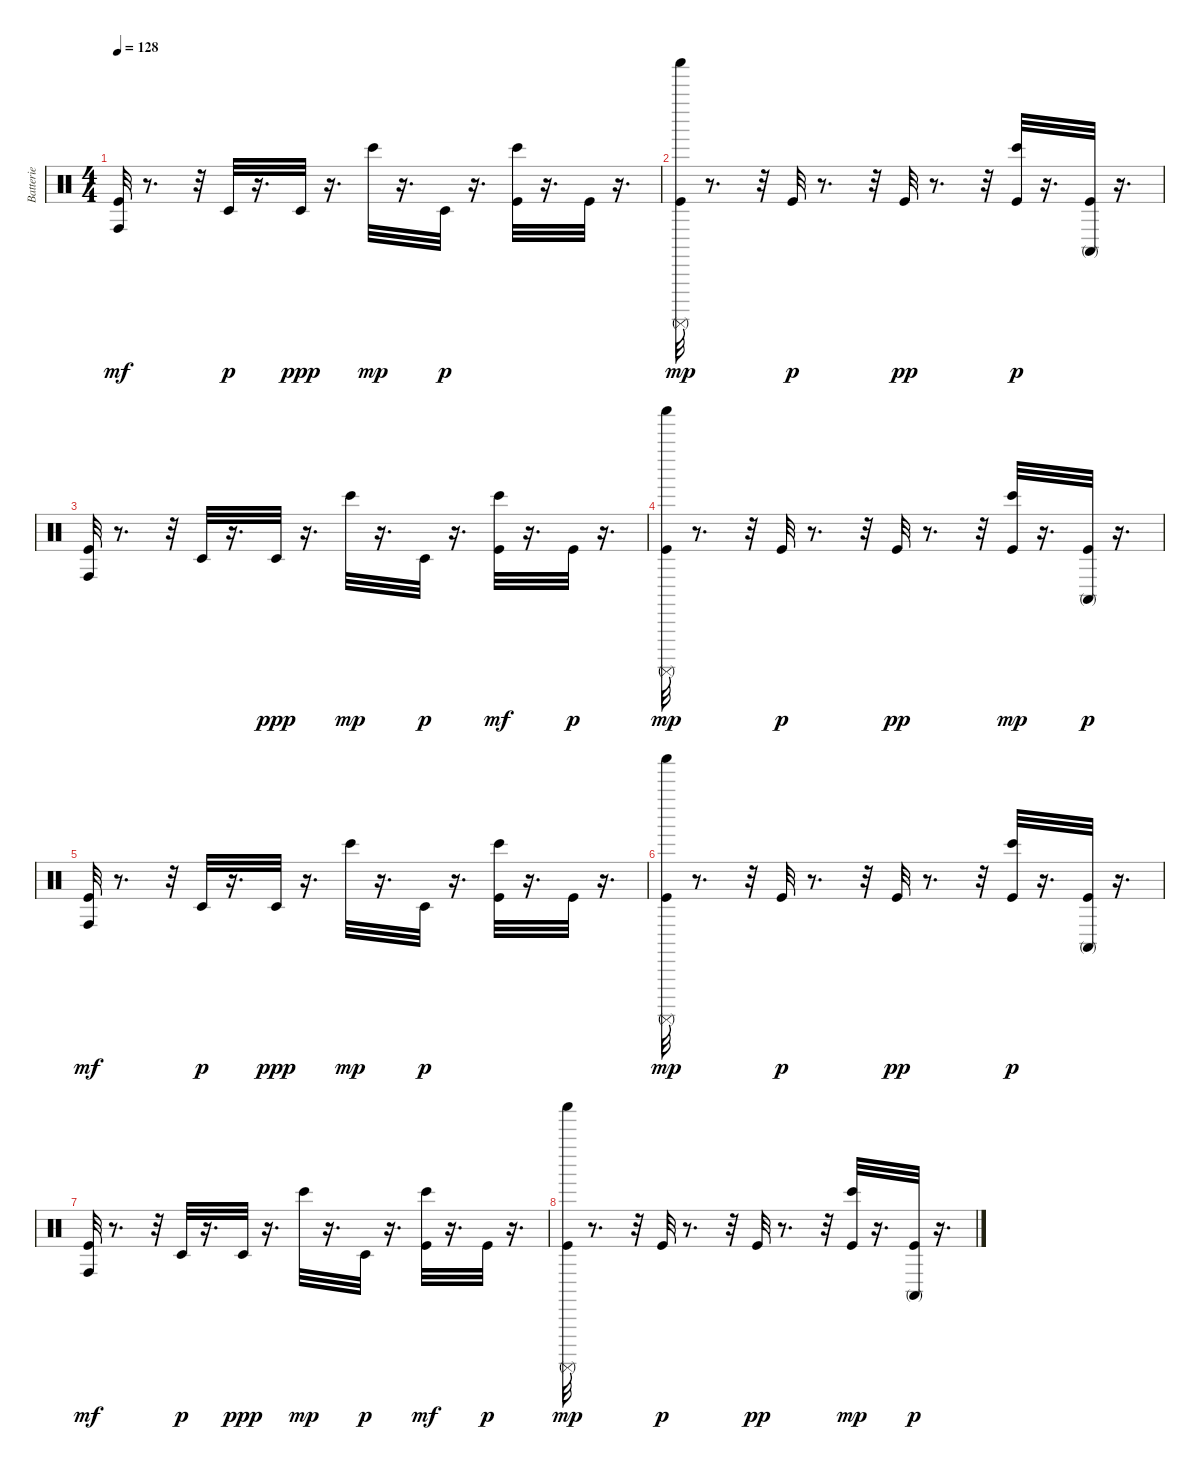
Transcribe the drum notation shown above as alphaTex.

\track ("Batterie" "Batterie") {instrument percussion}
\staff {score}
\articulation defaults
\ts (4 4)
\tempo 128
\clef neutral
\ks c
("Kick (hit)" "Conga high (hit)").32{dy mf} r.8{d} r.32 "Timbale low (hit)".32{dy p} r.16{d} "Timbale low (hit)".32{dy ppp} r.16{d} "Bongo High (hit)".32{dy mp} r.16{d} "Timbale low (hit)".32{dy p} r.16{d} ("Bongo High (hit)" "Kick (hit)").32 r.16{d} "Kick (hit)".32 r.16{d} |
("Kick (hit)" "Surdo (mute)" "Shaker (hit)").32{dy mp} r.8{d} r.32 "Kick (hit)".32{dy p} r.8{d} r.32 "Kick (hit)".32{dy pp} r.8{d} r.32 ("Bongo High (hit)" "Kick (hit)").32{dy p} r.16{d} ("Conga high (mute)" "Kick (hit)").32 r.16{d} |
("Conga high (hit)" "Kick (hit)").32 r.8{d} r.32 "Timbale low (hit)".32 r.16{d} "Timbale low (hit)".32{dy ppp} r.16{d} "Bongo High (hit)".32{dy mp} r.16{d} "Timbale low (hit)".32{dy p} r.16{d} ("Kick (hit)" "Bongo High (hit)").32{dy mf} r.16{d} "Kick (hit)".32{dy p} r.16{d} |
("Surdo (mute)" "Kick (hit)" "Shaker (hit)").32{dy mp} r.8{d} r.32 "Kick (hit)".32{dy p} r.8{d} r.32 "Kick (hit)".32{dy pp} r.8{d} r.32 ("Kick (hit)" "Bongo High (hit)").32{dy mp} r.16{d} ("Conga high (mute)" "Kick (hit)").32{dy p} r.16{d} |
("Kick (hit)" "Conga high (hit)").32{dy mf} r.8{d} r.32 "Timbale low (hit)".32{dy p} r.16{d} "Timbale low (hit)".32{dy ppp} r.16{d} "Bongo High (hit)".32{dy mp} r.16{d} "Timbale low (hit)".32{dy p} r.16{d} ("Bongo High (hit)" "Kick (hit)").32 r.16{d} "Kick (hit)".32 r.16{d} |
("Shaker (hit)" "Kick (hit)" "Surdo (mute)").32{dy mp} r.8{d} r.32 "Kick (hit)".32{dy p} r.8{d} r.32 "Kick (hit)".32{dy pp} r.8{d} r.32 ("Bongo High (hit)" "Kick (hit)").32{dy p} r.16{d} ("Conga high (mute)" "Kick (hit)").32 r.16{d} |
("Kick (hit)" "Conga high (hit)").32{dy mf} r.8{d} r.32 "Timbale low (hit)".32{dy p} r.16{d} "Timbale low (hit)".32{dy ppp} r.16{d} "Bongo High (hit)".32{dy mp} r.16{d} "Timbale low (hit)".32{dy p} r.16{d} ("Kick (hit)" "Bongo High (hit)").32{dy mf} r.16{d} "Kick (hit)".32{dy p} r.16{d} |
("Shaker (hit)" "Kick (hit)" "Surdo (mute)").32{dy mp} r.8{d} r.32 "Kick (hit)".32{dy p} r.8{d} r.32 "Kick (hit)".32{dy pp} r.8{d} r.32 ("Kick (hit)" "Bongo High (hit)").32{dy mp} r.16{d} ("Kick (hit)" "Conga high (mute)").32{dy p} r.16{d}
